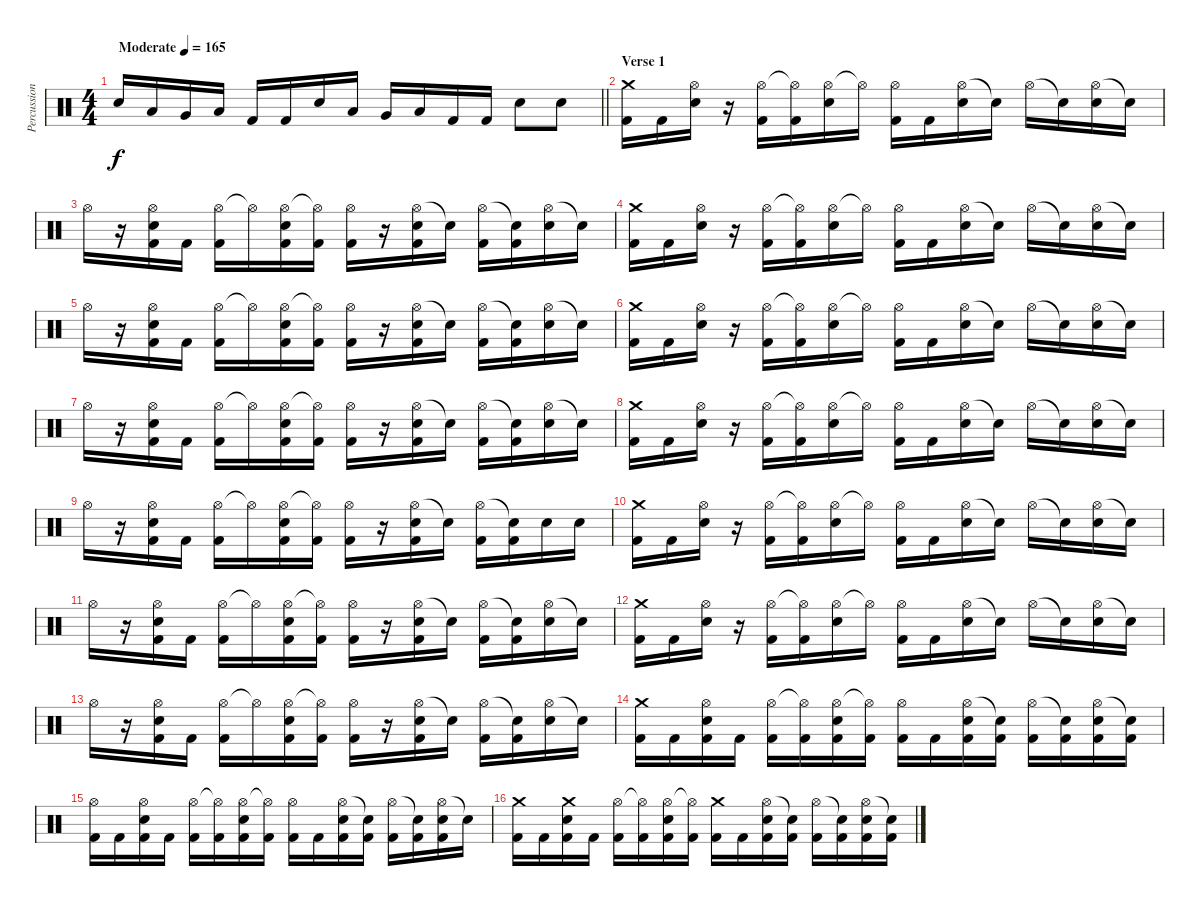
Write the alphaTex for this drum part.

\track ("Percussion" "Percussion") {instrument percussion}
\staff {score}
\articulation defaults
\ts (4 4)
\tempo (165 "Moderate")
\clef neutral
\barLineRight lightlight
\ks c "Electric Snare (hit)".16{dy f} "Low Tom (hit)".16 "Very Low Tom (hit)".16 "Low Floor Tom (hit)".16 "Kick (hit) 2".16 "Kick (hit) 2".16 "Electric Snare (hit)".16 "Low Tom (hit)".16 "Very Low Tom (hit)".16 "Low Floor Tom (hit)".16 "Kick (hit) 2".16 "Kick (hit) 2".16 "Electric Snare (hit)".8 "Electric Snare (hit)".8
|
\section ("" "Verse 1")
("Crash medium (hit)" "Kick (hit) 2").16 "Kick (hit) 2".16 ("Hi-Hat (open)" "Electric Snare (hit)").16 r.16 ("Hi-Hat (open)" "Kick (hit) 2").16 ("Hi-Hat (open)"{t} "Kick (hit) 2").16 ("Hi-Hat (open)" "Electric Snare (hit)").16 "Hi-Hat (open)"{t}.16 ("Hi-Hat (open)" "Kick (hit) 2").16 "Kick (hit) 2".16 ("Hi-Hat (open)" "Electric Snare (hit)").16 "Snare (hit)"{t}.16 "Hi-Hat (open)".16 "Snare (hit)"{t}.16 ("Hi-Hat (open)" "Electric Snare (hit)").16 "Snare (hit)"{t}.16 |
"Hi-Hat (open)".16 r.16 ("Hi-Hat (open)" "Electric Snare (hit)" "Kick (hit) 2").16 "Kick (hit) 2".16 ("Hi-Hat (open)" "Kick (hit) 2").16 "Hi-Hat (open)"{t}.16 ("Hi-Hat (open)" "Electric Snare (hit)" "Kick (hit) 2").16 ("Hi-Hat (open)"{t} "Kick (hit) 2").16 ("Hi-Hat (open)" "Kick (hit) 2").16 r.16 ("Hi-Hat (open)" "Electric Snare (hit)" "Kick (hit) 2").16 "Snare (hit)"{t}.16 ("Hi-Hat (open)" "Kick (hit) 2").16 ("Snare (hit)"{t} "Kick (hit) 2").16 ("Hi-Hat (open)" "Electric Snare (hit)").16 "Snare (hit)"{t}.16 |
("Crash medium (hit)" "Kick (hit) 2").16 "Kick (hit) 2".16 ("Hi-Hat (open)" "Electric Snare (hit)").16 r.16 ("Hi-Hat (open)" "Kick (hit) 2").16 ("Hi-Hat (open)"{t} "Kick (hit) 2").16 ("Hi-Hat (open)" "Electric Snare (hit)").16 "Hi-Hat (open)"{t}.16 ("Hi-Hat (open)" "Kick (hit) 2").16 "Kick (hit) 2".16 ("Hi-Hat (open)" "Electric Snare (hit)").16 "Snare (hit)"{t}.16 "Hi-Hat (open)".16 "Snare (hit)"{t}.16 ("Hi-Hat (open)" "Electric Snare (hit)").16 "Snare (hit)"{t}.16 |
"Hi-Hat (open)".16 r.16 ("Hi-Hat (open)" "Electric Snare (hit)" "Kick (hit) 2").16 "Kick (hit) 2".16 ("Hi-Hat (open)" "Kick (hit) 2").16 "Hi-Hat (open)"{t}.16 ("Hi-Hat (open)" "Electric Snare (hit)" "Kick (hit) 2").16 ("Hi-Hat (open)"{t} "Kick (hit) 2").16 ("Hi-Hat (open)" "Kick (hit) 2").16 r.16 ("Hi-Hat (open)" "Electric Snare (hit)" "Kick (hit) 2").16 "Snare (hit)"{t}.16 ("Hi-Hat (open)" "Kick (hit) 2").16 ("Snare (hit)"{t} "Kick (hit) 2").16 ("Hi-Hat (open)" "Electric Snare (hit)").16 "Snare (hit)"{t}.16 |
("Crash medium (hit)" "Kick (hit) 2").16 "Kick (hit) 2".16 ("Hi-Hat (open)" "Electric Snare (hit)").16 r.16 ("Hi-Hat (open)" "Kick (hit) 2").16 ("Hi-Hat (open)"{t} "Kick (hit) 2").16 ("Hi-Hat (open)" "Electric Snare (hit)").16 "Hi-Hat (open)"{t}.16 ("Hi-Hat (open)" "Kick (hit) 2").16 "Kick (hit) 2".16 ("Hi-Hat (open)" "Electric Snare (hit)").16 "Snare (hit)"{t}.16 "Hi-Hat (open)".16 "Snare (hit)"{t}.16 ("Hi-Hat (open)" "Electric Snare (hit)").16 "Snare (hit)"{t}.16 |
"Hi-Hat (open)".16 r.16 ("Hi-Hat (open)" "Electric Snare (hit)" "Kick (hit) 2").16 "Kick (hit) 2".16 ("Hi-Hat (open)" "Kick (hit) 2").16 "Hi-Hat (open)"{t}.16 ("Hi-Hat (open)" "Electric Snare (hit)" "Kick (hit) 2").16 ("Hi-Hat (open)"{t} "Kick (hit) 2").16 ("Hi-Hat (open)" "Kick (hit) 2").16 r.16 ("Hi-Hat (open)" "Electric Snare (hit)" "Kick (hit) 2").16 "Snare (hit)"{t}.16 ("Hi-Hat (open)" "Kick (hit) 2").16 ("Snare (hit)"{t} "Kick (hit) 2").16 ("Hi-Hat (open)" "Electric Snare (hit)").16 "Snare (hit)"{t}.16 |
("Crash medium (hit)" "Kick (hit) 2").16 "Kick (hit) 2".16 ("Hi-Hat (open)" "Electric Snare (hit)").16 r.16 ("Hi-Hat (open)" "Kick (hit) 2").16 ("Hi-Hat (open)"{t} "Kick (hit) 2").16 ("Hi-Hat (open)" "Electric Snare (hit)").16 "Hi-Hat (open)"{t}.16 ("Hi-Hat (open)" "Kick (hit) 2").16 "Kick (hit) 2".16 ("Hi-Hat (open)" "Electric Snare (hit)").16 "Snare (hit)"{t}.16 "Hi-Hat (open)".16 "Snare (hit)"{t}.16 ("Hi-Hat (open)" "Electric Snare (hit)").16 "Snare (hit)"{t}.16 |
"Hi-Hat (open)".16 r.16 ("Hi-Hat (open)" "Electric Snare (hit)" "Kick (hit) 2").16 "Kick (hit) 2".16 ("Hi-Hat (open)" "Kick (hit) 2").16 "Hi-Hat (open)"{t}.16 ("Hi-Hat (open)" "Electric Snare (hit)" "Kick (hit) 2").16 ("Hi-Hat (open)"{t} "Kick (hit) 2").16 ("Hi-Hat (open)" "Kick (hit) 2").16 r.16 ("Hi-Hat (open)" "Electric Snare (hit)" "Kick (hit) 2").16 "Snare (hit)"{t}.16 ("Hi-Hat (open)" "Kick (hit) 2").16 ("Snare (hit)"{t} "Kick (hit) 2").16 "Electric Snare (hit)".16 "Electric Snare (hit)".16 |
("Crash medium (hit)" "Kick (hit) 2").16 "Kick (hit) 2".16 ("Hi-Hat (open)" "Electric Snare (hit)").16 r.16 ("Hi-Hat (open)" "Kick (hit) 2").16 ("Hi-Hat (open)"{t} "Kick (hit) 2").16 ("Hi-Hat (open)" "Electric Snare (hit)").16 "Hi-Hat (open)"{t}.16 ("Hi-Hat (open)" "Kick (hit) 2").16 "Kick (hit) 2".16 ("Hi-Hat (open)" "Electric Snare (hit)").16 "Snare (hit)"{t}.16 "Hi-Hat (open)".16 "Snare (hit)"{t}.16 ("Hi-Hat (open)" "Electric Snare (hit)").16 "Snare (hit)"{t}.16 |
"Hi-Hat (open)".16 r.16 ("Hi-Hat (open)" "Electric Snare (hit)" "Kick (hit) 2").16 "Kick (hit) 2".16 ("Hi-Hat (open)" "Kick (hit) 2").16 "Hi-Hat (open)"{t}.16 ("Hi-Hat (open)" "Electric Snare (hit)" "Kick (hit) 2").16 ("Hi-Hat (open)"{t} "Kick (hit) 2").16 ("Hi-Hat (open)" "Kick (hit) 2").16 r.16 ("Hi-Hat (open)" "Electric Snare (hit)" "Kick (hit) 2").16 "Snare (hit)"{t}.16 ("Hi-Hat (open)" "Kick (hit) 2").16 ("Snare (hit)"{t} "Kick (hit) 2").16 ("Hi-Hat (open)" "Electric Snare (hit)").16 "Snare (hit)"{t}.16 |
("Crash medium (hit)" "Kick (hit) 2").16 "Kick (hit) 2".16 ("Hi-Hat (open)" "Electric Snare (hit)").16 r.16 ("Hi-Hat (open)" "Kick (hit) 2").16 ("Hi-Hat (open)"{t} "Kick (hit) 2").16 ("Hi-Hat (open)" "Electric Snare (hit)").16 "Hi-Hat (open)"{t}.16 ("Hi-Hat (open)" "Kick (hit) 2").16 "Kick (hit) 2".16 ("Hi-Hat (open)" "Electric Snare (hit)").16 "Snare (hit)"{t}.16 "Hi-Hat (open)".16 "Snare (hit)"{t}.16 ("Hi-Hat (open)" "Electric Snare (hit)").16 "Snare (hit)"{t}.16 |
"Hi-Hat (open)".16 r.16 ("Hi-Hat (open)" "Electric Snare (hit)" "Kick (hit) 2").16 "Kick (hit) 2".16 ("Hi-Hat (open)" "Kick (hit) 2").16 "Hi-Hat (open)"{t}.16 ("Hi-Hat (open)" "Electric Snare (hit)" "Kick (hit) 2").16 ("Hi-Hat (open)"{t} "Kick (hit) 2").16 ("Hi-Hat (open)" "Kick (hit) 2").16 r.16 ("Hi-Hat (open)" "Electric Snare (hit)" "Kick (hit) 2").16 "Snare (hit)"{t}.16 ("Hi-Hat (open)" "Kick (hit) 2").16 ("Snare (hit)"{t} "Kick (hit) 2").16 ("Hi-Hat (open)" "Electric Snare (hit)").16 "Snare (hit)"{t}.16 |
("Crash medium (hit)" "Kick (hit) 2").16 "Kick (hit) 2".16 ("Hi-Hat (open)" "Electric Snare (hit)" "Kick (hit) 2").16 "Kick (hit) 2".16 ("Hi-Hat (open)" "Kick (hit) 2").16 ("Hi-Hat (open)"{t} "Kick (hit) 2").16 ("Hi-Hat (open)" "Electric Snare (hit)" "Kick (hit) 2").16 ("Hi-Hat (open)"{t} "Kick (hit) 2").16 ("Hi-Hat (open)" "Kick (hit) 2").16 "Kick (hit) 2".16 ("Hi-Hat (open)" "Electric Snare (hit)" "Kick (hit) 2").16 ("Snare (hit)"{t} "Kick (hit) 2").16 ("Hi-Hat (open)" "Kick (hit) 2").16 ("Snare (hit)"{t} "Kick (hit) 2").16 ("Hi-Hat (open)" "Electric Snare (hit)" "Kick (hit) 2").16 ("Snare (hit)"{t} "Kick (hit) 2").16 |
("Hi-Hat (open)" "Kick (hit) 2").16 "Kick (hit) 2".16 ("Hi-Hat (open)" "Electric Snare (hit)" "Kick (hit) 2").16 "Kick (hit) 2".16 ("Hi-Hat (open)" "Kick (hit) 2").16 ("Hi-Hat (open)"{t} "Kick (hit) 2").16 ("Hi-Hat (open)" "Electric Snare (hit)" "Kick (hit) 2").16 ("Hi-Hat (open)"{t} "Kick (hit) 2").16 ("Hi-Hat (open)" "Kick (hit) 2").16 "Kick (hit) 2".16 ("Hi-Hat (open)" "Electric Snare (hit)" "Kick (hit) 2").16 ("Snare (hit)"{t} "Kick (hit) 2").16 ("Hi-Hat (open)" "Kick (hit) 2").16 ("Snare (hit)"{t} "Kick (hit) 2").16 ("Hi-Hat (open)" "Electric Snare (hit)" "Kick (hit) 2").16 "Snare (hit)"{t}.16 |
("Crash medium (hit)" "Kick (hit) 2").16 "Kick (hit) 2".16 ("Crash medium (hit)" "Electric Snare (hit)" "Kick (hit) 2").16 "Kick (hit) 2".16 ("Hi-Hat (open)" "Kick (hit) 2").16 ("Hi-Hat (open)"{t} "Kick (hit) 2").16 ("Hi-Hat (open)" "Electric Snare (hit)" "Kick (hit) 2").16 ("Hi-Hat (open)"{t} "Kick (hit) 2").16 ("Crash medium (hit)" "Kick (hit) 2").16 "Kick (hit) 2".16 ("Hi-Hat (open)" "Electric Snare (hit)" "Kick (hit) 2").16 ("Snare (hit)"{t} "Kick (hit) 2").16 ("Hi-Hat (open)" "Kick (hit) 2").16 ("Snare (hit)"{t} "Kick (hit) 2").16 ("Hi-Hat (open)" "Electric Snare (hit)" "Kick (hit) 2").16 ("Snare (hit)"{t} "Kick (hit) 2").16
